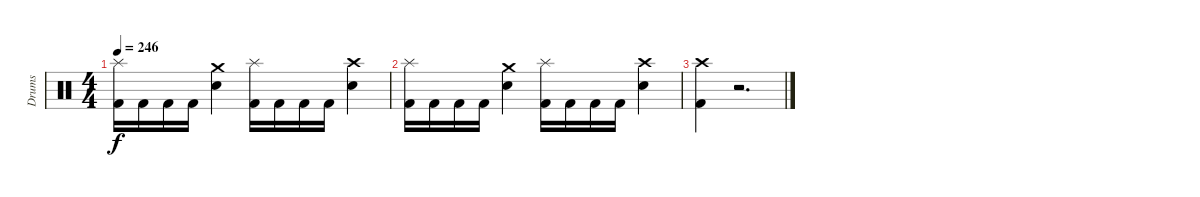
\track ("Drums" "Drums") {instrument percussion}
\staff {score}
\articulation defaults
\ts (4 4)
\tempo 246
\clef neutral
\ks c
("Splash (hit)" "Kick (hit) 2").16{dy f} "Kick (hit) 2".16 "Kick (hit) 2".16 "Kick (hit) 2".16 ("Crash medium (hit)" "Snare (hit) 2").4 ("Splash (hit)" "Kick (hit) 2").16 "Kick (hit) 2".16 "Kick (hit) 2".16 "Kick (hit) 2".16 ("Crash high (hit)" "Snare (hit) 2").4 |
("Splash (hit)" "Kick (hit) 2").16 "Kick (hit) 2".16 "Kick (hit) 2".16 "Kick (hit) 2".16 ("Crash medium (hit)" "Snare (hit) 2").4 ("Splash (hit)" "Kick (hit) 2").16 "Kick (hit) 2".16 "Kick (hit) 2".16 "Kick (hit) 2".16 ("Crash high (hit)" "Snare (hit) 2").4 |
("Crash high (hit)" "Kick (hit) 2").4 r.2{d}
